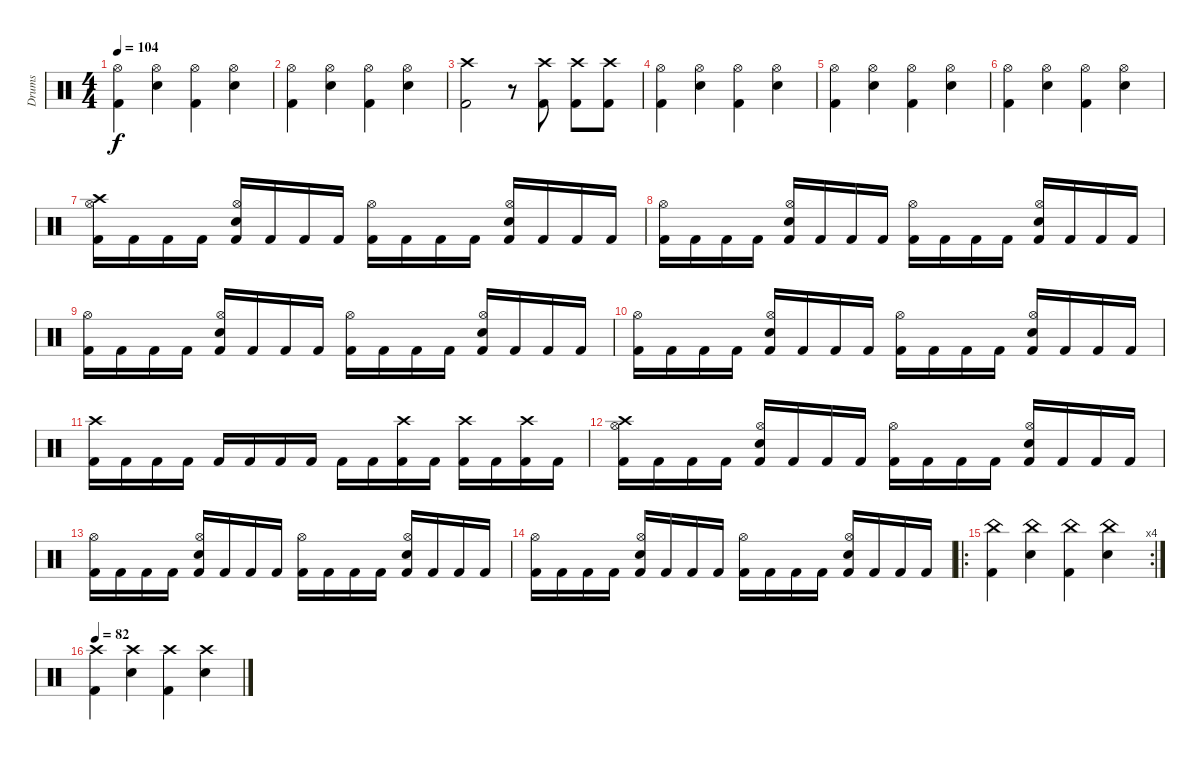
\track ("Drums" "Drums") {instrument percussion}
\staff {score}
\articulation defaults
\ts (4 4)
\tempo 104
\clef neutral
\ks c
("Kick (hit) 2" "Hi-Hat (open)").4{dy f} ("Snare (hit) 2" "Hi-Hat (open)").4 ("Kick (hit) 2" "Hi-Hat (open)").4 ("Snare (hit) 2" "Hi-Hat (open)").4 |
("Kick (hit) 2" "Hi-Hat (open)").4 ("Snare (hit) 2" "Hi-Hat (open)").4 ("Kick (hit) 2" "Hi-Hat (open)").4 ("Snare (hit) 2" "Hi-Hat (open)").4 |
("Kick (hit) 2" "Crash high (hit)").2 r.8 ("Kick (hit) 2" "Crash high (hit)").8 ("Kick (hit) 2" "Crash high (hit)").8 ("Kick (hit) 2" "Crash high (hit)").8 |
("Kick (hit) 2" "Hi-Hat (open)").4 ("Snare (hit) 2" "Hi-Hat (open)").4 ("Kick (hit) 2" "Hi-Hat (open)").4 ("Snare (hit) 2" "Hi-Hat (open)").4 |
("Kick (hit) 2" "Hi-Hat (open)").4 ("Snare (hit) 2" "Hi-Hat (open)").4 ("Kick (hit) 2" "Hi-Hat (open)").4 ("Snare (hit) 2" "Hi-Hat (open)").4 |
("Kick (hit) 2" "Hi-Hat (open)").4 ("Snare (hit) 2" "Hi-Hat (open)").4 ("Kick (hit) 2" "Hi-Hat (open)").4 ("Snare (hit) 2" "Hi-Hat (open)").4 |
("Kick (hit) 2" "Hi-Hat (open)" "Crash high (hit)").16 "Kick (hit) 2".16 "Kick (hit) 2".16 "Kick (hit) 2".16 ("Snare (hit) 2" "Kick (hit) 2" "Hi-Hat (open)").16 "Kick (hit) 2".16 "Kick (hit) 2".16 "Kick (hit) 2".16 ("Kick (hit) 2" "Hi-Hat (open)").16 "Kick (hit) 2".16 "Kick (hit) 2".16 "Kick (hit) 2".16 ("Snare (hit) 2" "Kick (hit) 2" "Hi-Hat (open)").16 "Kick (hit) 2".16 "Kick (hit) 2".16 "Kick (hit) 2".16 |
("Kick (hit) 2" "Hi-Hat (open)").16 "Kick (hit) 2".16 "Kick (hit) 2".16 "Kick (hit) 2".16 ("Snare (hit) 2" "Kick (hit) 2" "Hi-Hat (open)").16 "Kick (hit) 2".16 "Kick (hit) 2".16 "Kick (hit) 2".16 ("Kick (hit) 2" "Hi-Hat (open)").16 "Kick (hit) 2".16 "Kick (hit) 2".16 "Kick (hit) 2".16 ("Snare (hit) 2" "Kick (hit) 2" "Hi-Hat (open)").16 "Kick (hit) 2".16 "Kick (hit) 2".16 "Kick (hit) 2".16 |
("Kick (hit) 2" "Hi-Hat (open)").16 "Kick (hit) 2".16 "Kick (hit) 2".16 "Kick (hit) 2".16 ("Snare (hit) 2" "Kick (hit) 2" "Hi-Hat (open)").16 "Kick (hit) 2".16 "Kick (hit) 2".16 "Kick (hit) 2".16 ("Kick (hit) 2" "Hi-Hat (open)").16 "Kick (hit) 2".16 "Kick (hit) 2".16 "Kick (hit) 2".16 ("Snare (hit) 2" "Kick (hit) 2" "Hi-Hat (open)").16 "Kick (hit) 2".16 "Kick (hit) 2".16 "Kick (hit) 2".16 |
("Kick (hit) 2" "Hi-Hat (open)").16 "Kick (hit) 2".16 "Kick (hit) 2".16 "Kick (hit) 2".16 ("Snare (hit) 2" "Kick (hit) 2" "Hi-Hat (open)").16 "Kick (hit) 2".16 "Kick (hit) 2".16 "Kick (hit) 2".16 ("Kick (hit) 2" "Hi-Hat (open)").16 "Kick (hit) 2".16 "Kick (hit) 2".16 "Kick (hit) 2".16 ("Snare (hit) 2" "Kick (hit) 2" "Hi-Hat (open)").16 "Kick (hit) 2".16 "Kick (hit) 2".16 "Kick (hit) 2".16 |
("Kick (hit) 2" "Crash high (hit)").16 "Kick (hit) 2".16 "Kick (hit) 2".16 "Kick (hit) 2".16 "Kick (hit) 2".16 "Kick (hit) 2".16 "Kick (hit) 2".16 "Kick (hit) 2".16 "Kick (hit) 2".16 "Kick (hit) 2".16 ("Kick (hit) 2" "Crash high (hit)").16 "Kick (hit) 2".16 ("Kick (hit) 2" "Crash high (hit)").16 "Kick (hit) 2".16 ("Kick (hit) 2" "Crash high (hit)").16 "Kick (hit) 2".16 |
("Kick (hit) 2" "Hi-Hat (open)" "Crash high (hit)").16 "Kick (hit) 2".16 "Kick (hit) 2".16 "Kick (hit) 2".16 ("Snare (hit) 2" "Kick (hit) 2" "Hi-Hat (open)").16 "Kick (hit) 2".16 "Kick (hit) 2".16 "Kick (hit) 2".16 ("Kick (hit) 2" "Hi-Hat (open)").16 "Kick (hit) 2".16 "Kick (hit) 2".16 "Kick (hit) 2".16 ("Snare (hit) 2" "Kick (hit) 2" "Hi-Hat (open)").16 "Kick (hit) 2".16 "Kick (hit) 2".16 "Kick (hit) 2".16 |
("Kick (hit) 2" "Hi-Hat (open)").16 "Kick (hit) 2".16 "Kick (hit) 2".16 "Kick (hit) 2".16 ("Snare (hit) 2" "Kick (hit) 2" "Hi-Hat (open)").16 "Kick (hit) 2".16 "Kick (hit) 2".16 "Kick (hit) 2".16 ("Kick (hit) 2" "Hi-Hat (open)").16 "Kick (hit) 2".16 "Kick (hit) 2".16 "Kick (hit) 2".16 ("Snare (hit) 2" "Kick (hit) 2" "Hi-Hat (open)").16 "Kick (hit) 2".16 "Kick (hit) 2".16 "Kick (hit) 2".16 |
("Kick (hit) 2" "Hi-Hat (open)").16 "Kick (hit) 2".16 "Kick (hit) 2".16 "Kick (hit) 2".16 ("Snare (hit) 2" "Kick (hit) 2" "Hi-Hat (open)").16 "Kick (hit) 2".16 "Kick (hit) 2".16 "Kick (hit) 2".16 ("Kick (hit) 2" "Hi-Hat (open)").16 "Kick (hit) 2".16 "Kick (hit) 2".16 "Kick (hit) 2".16 ("Snare (hit) 2" "Kick (hit) 2" "Hi-Hat (open)").16 "Kick (hit) 2".16 "Kick (hit) 2".16 "Kick (hit) 2".16 |
\ro
\rc 4
("Kick (hit) 2" "China (hit)").4 ("Snare (hit) 2" "China (hit)").4 ("Kick (hit) 2" "China (hit)").4 ("Snare (hit) 2" "China (hit)").4 |
\tempo 82
("Kick (hit) 2" "Crash high (hit)").4 ("Snare (hit) 2" "Crash high (hit)").4 ("Kick (hit) 2" "Crash high (hit)").4 ("Snare (hit) 2" "Crash high (hit)").4
